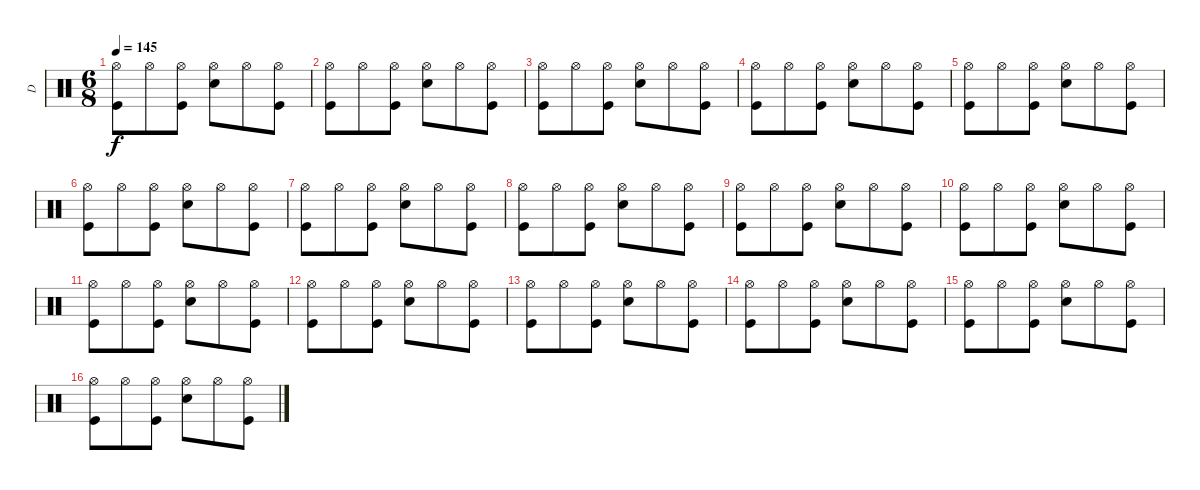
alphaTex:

\track ("D" "D") {instrument percussion}
\staff {score}
\articulation defaults
\ts (6 8)
\tempo 145
\clef neutral
\ks c
("Hi-Hat (open)" "Kick (hit)").8{dy f} "Hi-Hat (open)".8 ("Hi-Hat (open)" "Kick (hit)").8 ("Hi-Hat (open)" "Snare (hit) 2").8 "Hi-Hat (open)".8 ("Hi-Hat (open)" "Kick (hit)").8 |
("Hi-Hat (open)" "Kick (hit)").8 "Hi-Hat (open)".8 ("Hi-Hat (open)" "Kick (hit)").8 ("Hi-Hat (open)" "Snare (hit) 2").8 "Hi-Hat (open)".8 ("Hi-Hat (open)" "Kick (hit)").8 |
("Hi-Hat (open)" "Kick (hit)").8 "Hi-Hat (open)".8 ("Hi-Hat (open)" "Kick (hit)").8 ("Hi-Hat (open)" "Snare (hit) 2").8 "Hi-Hat (open)".8 ("Hi-Hat (open)" "Kick (hit)").8 |
("Hi-Hat (open)" "Kick (hit)").8 "Hi-Hat (open)".8 ("Hi-Hat (open)" "Kick (hit)").8 ("Hi-Hat (open)" "Snare (hit) 2").8 "Hi-Hat (open)".8 ("Hi-Hat (open)" "Kick (hit)").8 |
("Hi-Hat (open)" "Kick (hit)").8 "Hi-Hat (open)".8 ("Hi-Hat (open)" "Kick (hit)").8 ("Hi-Hat (open)" "Snare (hit) 2").8 "Hi-Hat (open)".8 ("Hi-Hat (open)" "Kick (hit)").8 |
("Hi-Hat (open)" "Kick (hit)").8 "Hi-Hat (open)".8 ("Hi-Hat (open)" "Kick (hit)").8 ("Hi-Hat (open)" "Snare (hit) 2").8 "Hi-Hat (open)".8 ("Hi-Hat (open)" "Kick (hit)").8 |
("Hi-Hat (open)" "Kick (hit)").8 "Hi-Hat (open)".8 ("Hi-Hat (open)" "Kick (hit)").8 ("Hi-Hat (open)" "Snare (hit) 2").8 "Hi-Hat (open)".8 ("Hi-Hat (open)" "Kick (hit)").8 |
("Hi-Hat (open)" "Kick (hit)").8 "Hi-Hat (open)".8 ("Hi-Hat (open)" "Kick (hit)").8 ("Hi-Hat (open)" "Snare (hit) 2").8 "Hi-Hat (open)".8 ("Hi-Hat (open)" "Kick (hit)").8 |
("Hi-Hat (open)" "Kick (hit)").8 "Hi-Hat (open)".8 ("Hi-Hat (open)" "Kick (hit)").8 ("Hi-Hat (open)" "Snare (hit) 2").8 "Hi-Hat (open)".8 ("Hi-Hat (open)" "Kick (hit)").8 |
("Hi-Hat (open)" "Kick (hit)").8 "Hi-Hat (open)".8 ("Hi-Hat (open)" "Kick (hit)").8 ("Hi-Hat (open)" "Snare (hit) 2").8 "Hi-Hat (open)".8 ("Hi-Hat (open)" "Kick (hit)").8 |
("Hi-Hat (open)" "Kick (hit)").8 "Hi-Hat (open)".8 ("Hi-Hat (open)" "Kick (hit)").8 ("Hi-Hat (open)" "Snare (hit) 2").8 "Hi-Hat (open)".8 ("Hi-Hat (open)" "Kick (hit)").8 |
("Hi-Hat (open)" "Kick (hit)").8 "Hi-Hat (open)".8 ("Hi-Hat (open)" "Kick (hit)").8 ("Hi-Hat (open)" "Snare (hit) 2").8 "Hi-Hat (open)".8 ("Hi-Hat (open)" "Kick (hit)").8 |
("Hi-Hat (open)" "Kick (hit)").8 "Hi-Hat (open)".8 ("Hi-Hat (open)" "Kick (hit)").8 ("Hi-Hat (open)" "Snare (hit) 2").8 "Hi-Hat (open)".8 ("Hi-Hat (open)" "Kick (hit)").8 |
("Hi-Hat (open)" "Kick (hit)").8 "Hi-Hat (open)".8 ("Hi-Hat (open)" "Kick (hit)").8 ("Hi-Hat (open)" "Snare (hit) 2").8 "Hi-Hat (open)".8 ("Hi-Hat (open)" "Kick (hit)").8 |
("Hi-Hat (open)" "Kick (hit)").8 "Hi-Hat (open)".8 ("Hi-Hat (open)" "Kick (hit)").8 ("Hi-Hat (open)" "Snare (hit) 2").8 "Hi-Hat (open)".8 ("Hi-Hat (open)" "Kick (hit)").8 |
("Hi-Hat (open)" "Kick (hit)").8 "Hi-Hat (open)".8 ("Hi-Hat (open)" "Kick (hit)").8 ("Hi-Hat (open)" "Snare (hit) 2").8 "Hi-Hat (open)".8 ("Hi-Hat (open)" "Kick (hit)").8
